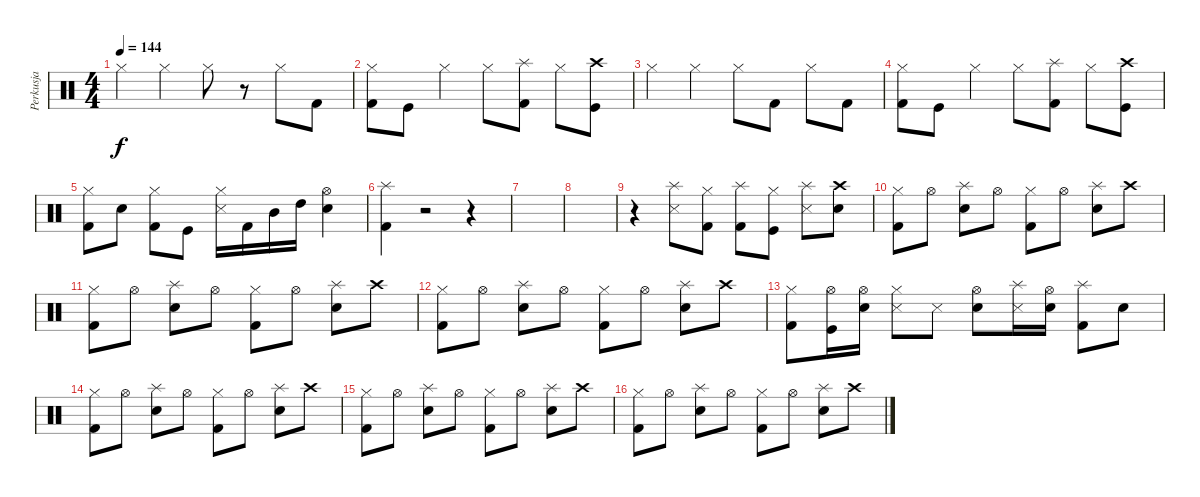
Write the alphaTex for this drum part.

\track ("Perkusja" "Perkusja") {instrument percussion}
\staff {score}
\articulation defaults
\ts (4 4)
\tempo 144
\clef neutral
\ks c "Hi-Hat (closed)".4{dy f} "Hi-Hat (closed)".4 "Hi-Hat (closed)".8
r.8 "Hi-Hat (closed)".8 "Kick (hit) 2".8 |
("Hi-Hat (closed)" "Kick (hit) 2").8 "Kick (hit)".8 "Hi-Hat (closed)".4 "Hi-Hat (closed)".8 ("Splash (hit)" "Kick (hit) 2").8 "Hi-Hat (closed)".8 ("Crash high (hit)" "Kick (hit)").8 |
"Hi-Hat (closed)".4 "Hi-Hat (closed)".4 "Hi-Hat (closed)".8 "Kick (hit) 2".8 "Hi-Hat (closed)".8 "Kick (hit) 2".8 |
("Hi-Hat (closed)" "Kick (hit) 2").8 "Kick (hit)".8 "Hi-Hat (closed)".4 "Hi-Hat (closed)".8 ("Splash (hit)" "Kick (hit) 2").8 "Hi-Hat (closed)".8 ("Crash high (hit)" "Kick (hit)").8 |
("Hi-Hat (closed)" "Kick (hit) 2").8 "Snare (hit) 2".8 ("Hi-Hat (closed)" "Kick (hit) 2").8 "Kick (hit)".8 ("Hi-Hat (closed)" "Snare (side stick) 3").16 "Kick (hit) 2".16 "Mid Tom (hit)".16 "High Tom (hit)".16 ("Hi-Hat (open)" "Snare (hit) 2").4 |
("Kick (hit) 2" "Splash (hit)").4 r.2 r.4 |
|
|
r.4 ("Splash (hit)" "Snare (side stick) 3").8 ("Hi-Hat (closed)" "Kick (hit) 2").8 ("Splash (hit)" "Kick (hit) 2").8 ("Hi-Hat (closed)" "Kick (hit)").8 ("Splash (hit)" "Snare (side stick) 3").8 ("Crash high (hit)" "Snare (hit) 2").8 |
("Kick (hit) 2" "Hi-Hat (closed)").8 "Hi-Hat (open)".8 ("Snare (hit) 2" "Splash (hit)").8 "Hi-Hat (open)".8 ("Kick (hit) 2" "Hi-Hat (closed)").8 "Hi-Hat (open)".8 ("Snare (hit) 2" "Splash (hit)").8 "Crash high (hit)".8 |
("Kick (hit) 2" "Hi-Hat (closed)").8 "Hi-Hat (open)".8 ("Snare (hit) 2" "Splash (hit)").8 "Hi-Hat (open)".8 ("Kick (hit) 2" "Hi-Hat (closed)").8 "Hi-Hat (open)".8 ("Snare (hit) 2" "Splash (hit)").8 "Crash high (hit)".8 |
("Kick (hit) 2" "Hi-Hat (closed)").8 "Hi-Hat (open)".8 ("Snare (hit) 2" "Splash (hit)").8 "Hi-Hat (open)".8 ("Kick (hit) 2" "Hi-Hat (closed)").8 "Hi-Hat (open)".8 ("Snare (hit) 2" "Splash (hit)").8 "Crash high (hit)".8 |
("Kick (hit) 2" "Hi-Hat (closed)").8 ("Hi-Hat (open)" "Kick (hit)").16 ("Snare (hit) 2" "Hi-Hat (open)").16 ("Snare (side stick) 3" "Hi-Hat (closed)").8 "Snare (side stick) 3".8 ("Snare (hit) 2" "Hi-Hat (open)").8 ("Snare (side stick) 3" "Splash (hit)").16 ("Snare (hit) 2" "Hi-Hat (open)").16 ("Kick (hit) 2" "Splash (hit)").8 "Snare (hit) 2".8 |
("Kick (hit) 2" "Hi-Hat (closed)").8 "Hi-Hat (open)".8 ("Snare (hit) 2" "Splash (hit)").8 "Hi-Hat (open)".8 ("Kick (hit) 2" "Hi-Hat (closed)").8 "Hi-Hat (open)".8 ("Snare (hit) 2" "Splash (hit)").8 "Crash high (hit)".8 |
("Kick (hit) 2" "Hi-Hat (closed)").8 "Hi-Hat (open)".8 ("Snare (hit) 2" "Splash (hit)").8 "Hi-Hat (open)".8 ("Kick (hit) 2" "Hi-Hat (closed)").8 "Hi-Hat (open)".8 ("Snare (hit) 2" "Splash (hit)").8 "Crash high (hit)".8 |
("Kick (hit) 2" "Hi-Hat (closed)").8 "Hi-Hat (open)".8 ("Snare (hit) 2" "Splash (hit)").8 "Hi-Hat (open)".8 ("Kick (hit) 2" "Hi-Hat (closed)").8 "Hi-Hat (open)".8 ("Snare (hit) 2" "Splash (hit)").8 "Crash high (hit)".8
